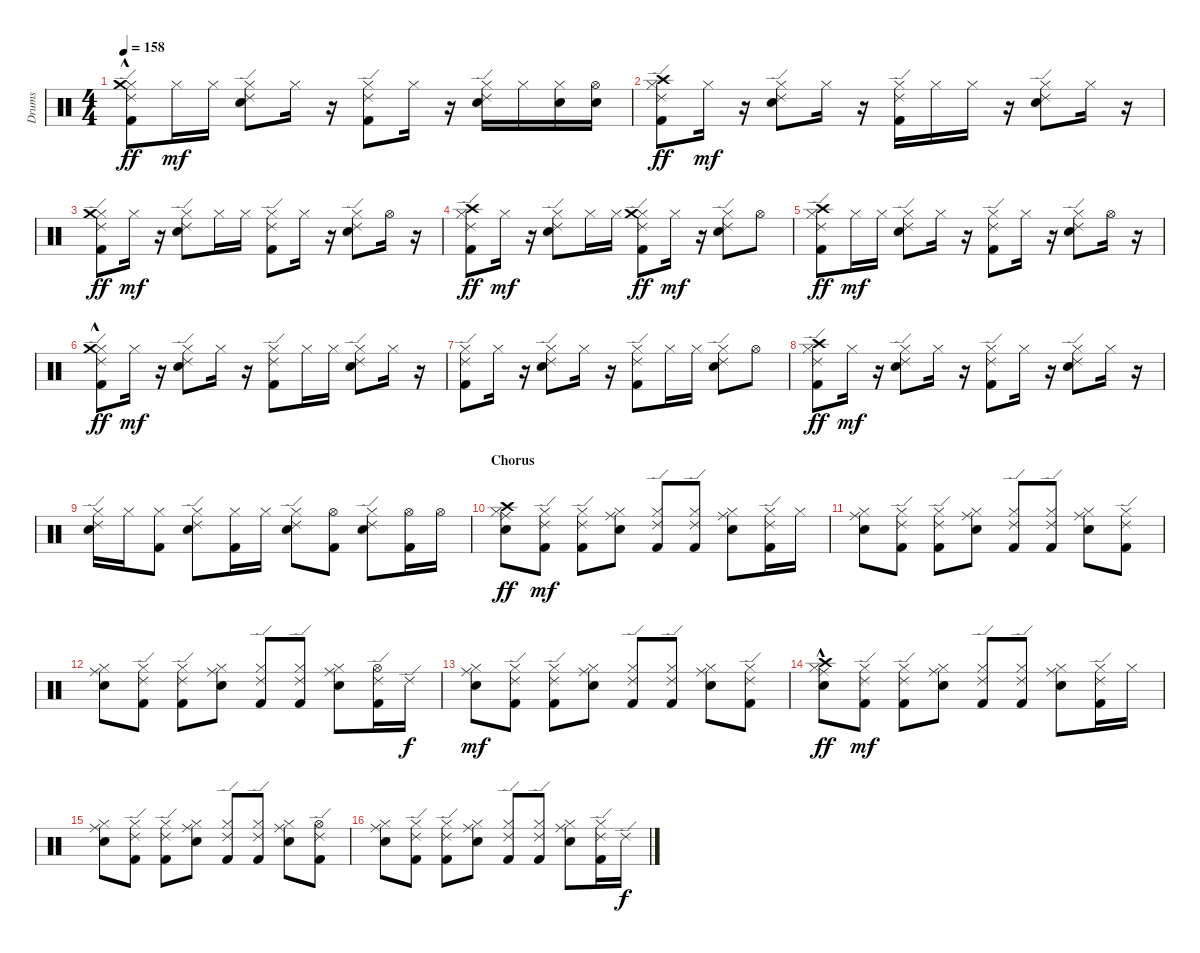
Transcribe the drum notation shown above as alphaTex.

\track ("Drums" "Drums") {instrument percussion}
\staff {score}
\articulation defaults
\ts (4 4)
\tempo 158
\clef neutral
\ks c
("Kick (hit) 2" "Hi-Hat (closed)" "Ride (edge) 2" "Crash medium (hit)"{hac}).8{dy ff} "Hi-Hat (closed)".16{dy mf} "Hi-Hat (closed)".16 ("Snare (hit) 2" "Hi-Hat (closed)" "Ride (edge) 2").8 "Hi-Hat (closed)".16 r.16 ("Kick (hit) 2" "Hi-Hat (closed)" "Ride (edge) 2").8 "Hi-Hat (closed)".16 r.16 ("Snare (hit) 2" "Hi-Hat (closed)" "Ride (edge) 2").16 "Hi-Hat (closed)".16 ("Snare (hit) 2" "Hi-Hat (closed)").16 ("Snare (hit) 2" "Hi-Hat (open)").16 |
("Kick (hit) 2" "Hi-Hat (closed)" "Ride (edge) 2" "Crash high (hit)").8{dy ff} "Hi-Hat (closed)".16{dy mf} r.16 ("Snare (hit) 2" "Hi-Hat (closed)" "Ride (edge) 2").8 "Hi-Hat (closed)".16 r.16 ("Kick (hit) 2" "Hi-Hat (closed)" "Ride (edge) 2").16 "Hi-Hat (closed)".16 "Hi-Hat (closed)".16 r.16 ("Snare (hit) 2" "Hi-Hat (closed)" "Ride (edge) 2").8 "Hi-Hat (closed)".16 r.16 |
("Kick (hit) 2" "Hi-Hat (closed)" "Ride (edge) 2" "Crash medium (hit)").8{dy ff} "Hi-Hat (closed)".16{dy mf} r.16 ("Snare (hit) 2" "Hi-Hat (closed)" "Ride (edge) 2").8 "Hi-Hat (closed)".16 "Hi-Hat (closed)".16 ("Kick (hit) 2" "Hi-Hat (closed)" "Ride (edge) 2").8 "Hi-Hat (closed)".16 r.16 ("Snare (hit) 2" "Hi-Hat (closed)" "Ride (edge) 2").8 "Hi-Hat (open)".16 r.16 |
("Kick (hit) 2" "Hi-Hat (closed)" "Ride (edge) 2" "Crash high (hit)").8{dy ff} "Hi-Hat (closed)".16{dy mf} r.16 ("Snare (hit) 2" "Hi-Hat (closed)" "Ride (edge) 2").8 "Hi-Hat (closed)".16 "Hi-Hat (closed)".16 ("Kick (hit) 2" "Hi-Hat (closed)" "Ride (edge) 2" "Crash medium (hit)").8{dy ff} "Hi-Hat (closed)".16{dy mf} r.16 ("Snare (hit) 2" "Hi-Hat (closed)" "Ride (edge) 2").8 "Hi-Hat (open)".8 |
("Kick (hit) 2" "Hi-Hat (closed)" "Ride (edge) 2" "Crash high (hit)").8{dy ff} "Hi-Hat (closed)".16{dy mf} "Hi-Hat (closed)".16 ("Snare (hit) 2" "Hi-Hat (closed)" "Ride (edge) 2").8 "Hi-Hat (closed)".16 r.16 ("Kick (hit) 2" "Hi-Hat (closed)" "Ride (edge) 2").8 "Hi-Hat (closed)".16 r.16 ("Snare (hit) 2" "Hi-Hat (closed)" "Ride (edge) 2").8 "Hi-Hat (open)".16 r.16 |
("Kick (hit) 2" "Hi-Hat (closed)" "Ride (edge) 2" "Crash medium (hit)"{hac}).8{dy ff} "Hi-Hat (closed)".16{dy mf} r.16 ("Snare (hit) 2" "Hi-Hat (closed)" "Ride (edge) 2").8 "Hi-Hat (closed)".16 r.16 ("Kick (hit) 2" "Hi-Hat (closed)" "Ride (edge) 2").8 "Hi-Hat (closed)".16 "Hi-Hat (closed)".16 ("Snare (hit) 2" "Hi-Hat (closed)" "Ride (edge) 2").8 "Hi-Hat (closed)".16 r.16 |
("Kick (hit) 2" "Hi-Hat (closed)" "Ride (edge) 2").8 "Hi-Hat (closed)".16 r.16 ("Snare (hit) 2" "Hi-Hat (closed)" "Ride (edge) 2").8 "Hi-Hat (closed)".16 r.16 ("Kick (hit) 2" "Hi-Hat (closed)" "Ride (edge) 2").8 "Hi-Hat (closed)".16 "Hi-Hat (closed)".16 ("Snare (hit) 2" "Hi-Hat (closed)" "Ride (edge) 2").8 "Hi-Hat (open)".8 |
("Kick (hit) 2" "Hi-Hat (closed)" "Ride (edge) 2" "Crash high (hit)").8{dy ff} "Hi-Hat (closed)".16{dy mf} r.16 ("Snare (hit) 2" "Hi-Hat (closed)" "Ride (edge) 2").8 "Hi-Hat (closed)".16 r.16 ("Kick (hit) 2" "Hi-Hat (closed)" "Ride (edge) 2").8 "Hi-Hat (closed)".16 r.16 ("Snare (hit) 2" "Hi-Hat (closed)" "Ride (edge) 2").8 "Hi-Hat (closed)".16 r.16 |
("Snare (hit) 2" "Hi-Hat (closed)" "Ride (edge) 2").16 "Hi-Hat (closed)".16 ("Kick (hit) 2" "Hi-Hat (closed)").8 ("Snare (hit) 2" "Hi-Hat (closed)" "Ride (edge) 2").8 ("Kick (hit) 2" "Hi-Hat (closed)").16 "Hi-Hat (closed)".16 ("Snare (hit) 2" "Hi-Hat (closed)" "Ride (edge) 2").8 ("Kick (hit) 2" "Hi-Hat (open)").8 ("Snare (hit) 2" "Hi-Hat (closed)" "Ride (edge) 2").8 ("Kick (hit) 2" "Hi-Hat (open)").16 "Hi-Hat (open)".16 |
\section ("" "Chorus")
("Snare (hit) 2" "Hi-Hat (closed)" "Ride (middle)" "Crash high (hit)").8{dy ff} ("Kick (hit) 2" "Hi-Hat (closed)" "Ride (edge) 2").8{dy mf} ("Kick (hit) 2" "Hi-Hat (closed)" "Ride (edge) 2").8 ("Snare (hit) 2" "Hi-Hat (closed)" "Ride (middle)").8 ("Kick (hit) 2" "Hi-Hat (closed)" "Ride (edge) 2").8 ("Kick (hit) 2" "Hi-Hat (closed)" "Ride (edge) 2").8 ("Snare (hit) 2" "Hi-Hat (closed)" "Ride (middle)").8 ("Kick (hit) 2" "Hi-Hat (closed)" "Ride (edge) 2").16 "Hi-Hat (closed)".16 |
("Snare (hit) 2" "Hi-Hat (closed)" "Ride (middle)").8 ("Kick (hit) 2" "Hi-Hat (closed)" "Ride (edge) 2").8 ("Kick (hit) 2" "Hi-Hat (closed)" "Ride (edge) 2").8 ("Snare (hit) 2" "Hi-Hat (closed)" "Ride (middle)").8 ("Kick (hit) 2" "Hi-Hat (closed)" "Ride (edge) 2").8 ("Kick (hit) 2" "Hi-Hat (closed)" "Ride (edge) 2").8 ("Snare (hit) 2" "Hi-Hat (closed)" "Ride (middle)").8 ("Kick (hit) 2" "Hi-Hat (closed)" "Ride (edge) 2").8 |
("Snare (hit) 2" "Hi-Hat (closed)" "Ride (middle)").8 ("Kick (hit) 2" "Hi-Hat (closed)" "Ride (edge) 2").8 ("Kick (hit) 2" "Hi-Hat (closed)" "Ride (edge) 2").8 ("Snare (hit) 2" "Hi-Hat (closed)" "Ride (middle)").8 ("Kick (hit) 2" "Hi-Hat (closed)" "Ride (edge) 2").8 ("Kick (hit) 2" "Hi-Hat (closed)" "Ride (edge) 2").8 ("Snare (hit) 2" "Hi-Hat (closed)" "Ride (middle)").8 ("Kick (hit) 2" "Hi-Hat (open)" "Ride (edge) 2").16 "Ride (edge) 2".16{dy f} |
("Snare (hit) 2" "Hi-Hat (closed)" "Ride (middle)").8{dy mf} ("Kick (hit) 2" "Hi-Hat (closed)" "Ride (edge) 2").8 ("Kick (hit) 2" "Hi-Hat (closed)" "Ride (edge) 2").8 ("Snare (hit) 2" "Hi-Hat (closed)" "Ride (middle)").8 ("Kick (hit) 2" "Hi-Hat (closed)" "Ride (edge) 2").8 ("Kick (hit) 2" "Hi-Hat (closed)" "Ride (edge) 2").8 ("Snare (hit) 2" "Hi-Hat (closed)" "Ride (middle)").8 ("Kick (hit) 2" "Hi-Hat (closed)" "Ride (edge) 2").8 |
("Snare (hit) 2" "Hi-Hat (closed)" "Ride (middle)" "Crash high (hit)"{hac}).8{dy ff} ("Kick (hit) 2" "Hi-Hat (closed)" "Ride (edge) 2").8{dy mf} ("Kick (hit) 2" "Hi-Hat (closed)" "Ride (edge) 2").8 ("Snare (hit) 2" "Hi-Hat (closed)" "Ride (middle)").8 ("Kick (hit) 2" "Hi-Hat (closed)" "Ride (edge) 2").8 ("Kick (hit) 2" "Hi-Hat (closed)" "Ride (edge) 2").8 ("Snare (hit) 2" "Hi-Hat (closed)" "Ride (middle)").8 ("Kick (hit) 2" "Hi-Hat (closed)" "Ride (edge) 2").16 "Hi-Hat (closed)".16 |
("Snare (hit) 2" "Hi-Hat (closed)" "Ride (middle)").8 ("Kick (hit) 2" "Hi-Hat (closed)" "Ride (edge) 2").8 ("Kick (hit) 2" "Hi-Hat (closed)" "Ride (edge) 2").8 ("Snare (hit) 2" "Hi-Hat (closed)" "Ride (middle)").8 ("Kick (hit) 2" "Hi-Hat (closed)" "Ride (edge) 2").8 ("Kick (hit) 2" "Hi-Hat (closed)" "Ride (edge) 2").8 ("Snare (hit) 2" "Hi-Hat (closed)" "Ride (middle)").8 ("Kick (hit) 2" "Hi-Hat (open)" "Ride (edge) 2").8 |
("Snare (hit) 2" "Hi-Hat (closed)" "Ride (middle)").8 ("Kick (hit) 2" "Hi-Hat (closed)" "Ride (edge) 2").8 ("Kick (hit) 2" "Hi-Hat (closed)" "Ride (edge) 2").8 ("Snare (hit) 2" "Hi-Hat (closed)" "Ride (middle)").8 ("Kick (hit) 2" "Hi-Hat (closed)" "Ride (edge) 2").8 ("Kick (hit) 2" "Hi-Hat (closed)" "Ride (edge) 2").8 ("Snare (hit) 2" "Hi-Hat (closed)" "Ride (middle)").8 ("Kick (hit) 2" "Hi-Hat (closed)" "Ride (edge) 2").16 "Ride (edge) 2".16{dy f}
